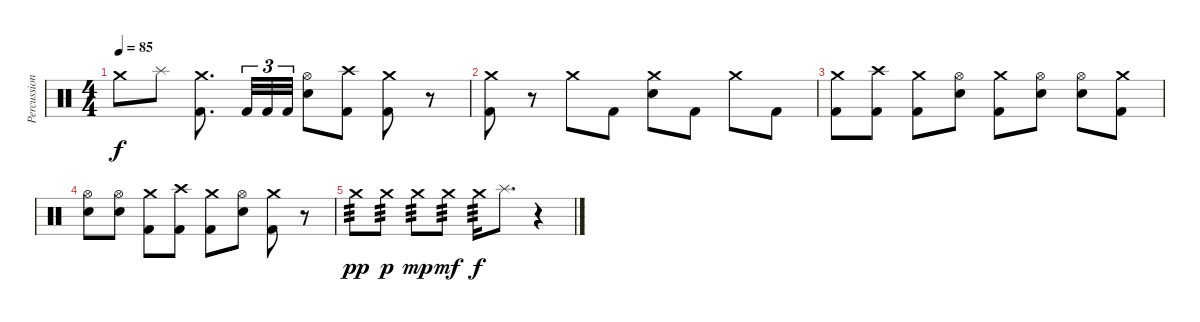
\track ("Percussion" "Percussion") {instrument percussion}
\staff {score}
\articulation defaults
\ts (4 4)
\tempo 85
\clef neutral
\ks c "Crash medium (hit)".8{dy f} "Splash (hit)".8
("Crash medium (hit)" "Kick (hit) 2").8{d} "Kick (hit) 2".32{tu (3 2)} "Kick (hit) 2".32{tu (3 2)} "Kick (hit) 2".32{tu (3 2)} ("Hi-Hat (open)" "Snare (hit) 2").8 ("Crash high (hit)" "Kick (hit) 2").8 ("Crash medium (hit)" "Kick (hit) 2").8 r.8 |
("Crash medium (hit)" "Kick (hit) 2").8 r.8 "Crash medium (hit)".8 "Kick (hit) 2".8 ("Crash medium (hit)" "Snare (hit) 2").8 "Kick (hit) 2".8 "Crash medium (hit)".8 "Kick (hit) 2".8 |
("Crash medium (hit)" "Kick (hit) 2").8 ("Crash high (hit)" "Kick (hit) 2").8 ("Crash medium (hit)" "Kick (hit) 2").8 ("Hi-Hat (open)" "Snare (hit) 2").8 ("Crash medium (hit)" "Kick (hit) 2").8 ("Hi-Hat (open)" "Snare (hit) 2").8 ("Hi-Hat (open)" "Snare (hit) 2").8 ("Crash medium (hit)" "Kick (hit) 2").8 |
("Hi-Hat (open)" "Snare (hit) 2").8 ("Hi-Hat (open)" "Snare (hit) 2").8 ("Crash medium (hit)" "Kick (hit) 2").8 ("Crash high (hit)" "Kick (hit) 2").8 ("Crash medium (hit)" "Kick (hit) 2").8 ("Hi-Hat (open)" "Snare (hit) 2").8 ("Crash medium (hit)" "Kick (hit) 2").8 r.8 |
"Crash medium (hit)".8{tp 3 dy pp} "Crash medium (hit)".8{tp 3 dy p} "Crash medium (hit)".8{tp 3 dy mp} "Crash medium (hit)".8{tp 3 dy mf} "Crash medium (hit)".16{tp 3 dy f} "Splash (hit)".8{d} r.4
